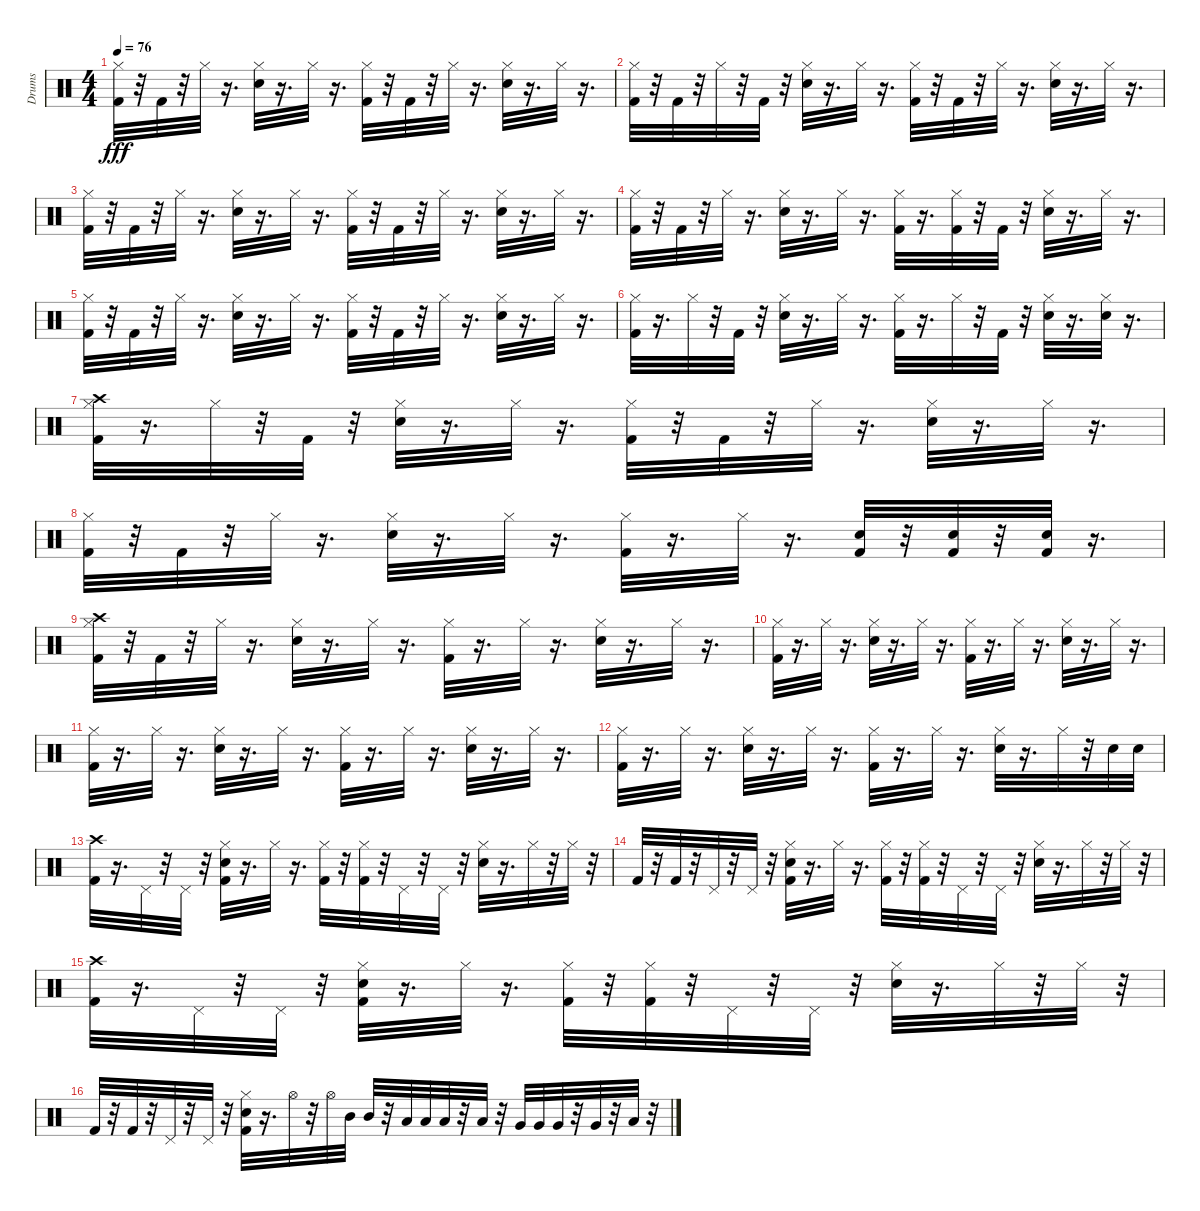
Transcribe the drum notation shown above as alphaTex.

\track ("Drums" "Drums") {instrument percussion}
\staff {score}
\articulation defaults
\ts (4 4)
\tempo 76
\clef neutral
\ks c
("Hi-Hat (closed)" "Kick (hit) 2").32{dy fff} r.32 "Kick (hit) 2".32 r.32 "Hi-Hat (closed)".32 r.16{d} ("Hi-Hat (closed)" "Electric Snare (hit)").32 r.16{d} "Hi-Hat (closed)".32 r.16{d} ("Hi-Hat (closed)" "Kick (hit) 2").32 r.32 "Kick (hit) 2".32 r.32 "Hi-Hat (closed)".32 r.16{d} ("Hi-Hat (closed)" "Electric Snare (hit)").32 r.16{d} "Hi-Hat (closed)".32 r.16{d} |
("Kick (hit) 2" "Hi-Hat (closed)").32 r.32 "Kick (hit) 2".32 r.32 "Hi-Hat (closed)".32 r.32 "Kick (hit) 2".32 r.32 ("Electric Snare (hit)" "Hi-Hat (closed)").32 r.16{d} "Hi-Hat (closed)".32 r.16{d} ("Kick (hit) 2" "Hi-Hat (closed)").32 r.32 "Kick (hit) 2".32 r.32 "Hi-Hat (closed)".32 r.16{d} ("Electric Snare (hit)" "Hi-Hat (closed)").32 r.16{d} "Hi-Hat (closed)".32 r.16{d} |
("Hi-Hat (closed)" "Kick (hit) 2").32 r.32 "Kick (hit) 2".32 r.32 "Hi-Hat (closed)".32 r.16{d} ("Hi-Hat (closed)" "Electric Snare (hit)").32 r.16{d} "Hi-Hat (closed)".32 r.16{d} ("Hi-Hat (closed)" "Kick (hit) 2").32 r.32 "Kick (hit) 2".32 r.32 "Hi-Hat (closed)".32 r.16{d} ("Hi-Hat (closed)" "Electric Snare (hit)").32 r.16{d} "Hi-Hat (closed)".32 r.16{d} |
("Kick (hit) 2" "Hi-Hat (closed)").32 r.32 "Kick (hit) 2".32 r.32 "Hi-Hat (closed)".32 r.16{d} ("Electric Snare (hit)" "Hi-Hat (closed)").32 r.16{d} "Hi-Hat (closed)".32 r.16{d} ("Kick (hit) 2" "Hi-Hat (closed)").32 r.16{d} ("Kick (hit) 2" "Hi-Hat (closed)").32 r.32 "Kick (hit) 2".32 r.32 ("Electric Snare (hit)" "Hi-Hat (closed)").32 r.16{d} "Hi-Hat (closed)".32 r.16{d} |
("Hi-Hat (closed)" "Kick (hit) 2").32 r.32 "Kick (hit) 2".32 r.32 "Hi-Hat (closed)".32 r.16{d} ("Hi-Hat (closed)" "Electric Snare (hit)").32 r.16{d} "Hi-Hat (closed)".32 r.16{d} ("Hi-Hat (closed)" "Kick (hit) 2").32 r.32 "Kick (hit) 2".32 r.32 "Hi-Hat (closed)".32 r.16{d} ("Hi-Hat (closed)" "Electric Snare (hit)").32 r.16{d} "Hi-Hat (closed)".32 r.16{d} |
("Kick (hit) 2" "Hi-Hat (closed)").32 r.16{d} "Hi-Hat (closed)".32 r.32 "Kick (hit) 2".32 r.32 ("Electric Snare (hit)" "Hi-Hat (closed)").32 r.16{d} "Hi-Hat (closed)".32 r.16{d} ("Kick (hit) 2" "Hi-Hat (closed)").32 r.16{d} "Hi-Hat (closed)".32 r.32 "Kick (hit) 2".32 r.32 ("Electric Snare (hit)" "Hi-Hat (closed)").32 r.16{d} ("Electric Snare (hit)" "Hi-Hat (closed)").32 r.16{d} |
("Crash high (hit)" "Hi-Hat (closed)" "Kick (hit) 2").32 r.16{d} "Hi-Hat (closed)".32 r.32 "Kick (hit) 2".32 r.32 ("Hi-Hat (closed)" "Electric Snare (hit)").32 r.16{d} "Hi-Hat (closed)".32 r.16{d} ("Hi-Hat (closed)" "Kick (hit) 2").32 r.32 "Kick (hit) 2".32 r.32 "Hi-Hat (closed)".32 r.16{d} ("Hi-Hat (closed)" "Electric Snare (hit)").32 r.16{d} "Hi-Hat (closed)".32 r.16{d} |
("Kick (hit) 2" "Hi-Hat (closed)").32 r.32 "Kick (hit) 2".32 r.32 "Hi-Hat (closed)".32 r.16{d} ("Electric Snare (hit)" "Hi-Hat (closed)").32 r.16{d} "Hi-Hat (closed)".32 r.16{d} ("Kick (hit) 2" "Hi-Hat (closed)").32 r.16{d} "Hi-Hat (closed)".32 r.16{d} ("Kick (hit) 2" "Electric Snare (hit)").32 r.32 ("Kick (hit) 2" "Electric Snare (hit)").32 r.32 ("Kick (hit) 2" "Electric Snare (hit)").32 r.16{d} |
("Crash high (hit)" "Hi-Hat (closed)" "Kick (hit) 2").32 r.32 "Kick (hit) 2".32 r.32 "Hi-Hat (closed)".32 r.16{d} ("Hi-Hat (closed)" "Electric Snare (hit)").32 r.16{d} "Hi-Hat (closed)".32 r.16{d} ("Kick (hit) 2" "Hi-Hat (closed)").32 r.16{d} "Hi-Hat (closed)".32 r.16{d} ("Hi-Hat (closed)" "Electric Snare (hit)").32 r.16{d} "Hi-Hat (closed)".32 r.16{d} |
("Kick (hit) 2" "Hi-Hat (closed)").32 r.16{d} "Hi-Hat (closed)".32 r.16{d} ("Electric Snare (hit)" "Hi-Hat (closed)").32 r.16{d} "Hi-Hat (closed)".32 r.16{d} ("Kick (hit) 2" "Hi-Hat (closed)").32 r.16{d} "Hi-Hat (closed)".32 r.16{d} ("Hi-Hat (closed)" "Electric Snare (hit)").32 r.16{d} "Hi-Hat (closed)".32 r.16{d} |
("Hi-Hat (closed)" "Kick (hit) 2").32 r.16{d} "Hi-Hat (closed)".32 r.16{d} ("Hi-Hat (closed)" "Electric Snare (hit)").32 r.16{d} "Hi-Hat (closed)".32 r.16{d} ("Kick (hit) 2" "Hi-Hat (closed)").32 r.16{d} "Hi-Hat (closed)".32 r.16{d} ("Hi-Hat (closed)" "Electric Snare (hit)").32 r.16{d} "Hi-Hat (closed)".32 r.16{d} |
("Kick (hit) 2" "Hi-Hat (closed)").32 r.16{d} "Hi-Hat (closed)".32 r.16{d} ("Electric Snare (hit)" "Hi-Hat (closed)").32 r.16{d} "Hi-Hat (closed)".32 r.16{d} ("Kick (hit) 2" "Hi-Hat (closed)").32 r.16{d} "Hi-Hat (closed)".32 r.16{d} ("Hi-Hat (closed)" "Electric Snare (hit)").32 r.16{d} "Hi-Hat (closed)".32 r.32 "Electric Snare (hit)".32 "Electric Snare (hit)".32 |
("Crash high (hit)" "Kick (hit) 2").32 r.16{d} "Pedal Hi-Hat (hit)".32 r.32 "Pedal Hi-Hat (hit)".32 r.32 ("Hi-Hat (closed)" "Kick (hit) 2" "Electric Snare (hit)").32 r.16{d} "Hi-Hat (closed)".32 r.16{d} ("Hi-Hat (closed)" "Kick (hit) 2").32 r.32 ("Hi-Hat (closed)" "Kick (hit) 2").32 r.32 "Pedal Hi-Hat (hit)".32 r.32 "Pedal Hi-Hat (hit)".32 r.32 ("Hi-Hat (closed)" "Electric Snare (hit)").32 r.16{d} "Hi-Hat (closed)".32 r.32 "Hi-Hat (closed)".32 r.32 |
"Kick (hit) 2".32 r.32 "Kick (hit) 2".32 r.32 "Pedal Hi-Hat (hit)".32 r.32 "Pedal Hi-Hat (hit)".32 r.32 ("Hi-Hat (closed)" "Kick (hit) 2" "Electric Snare (hit)").32 r.16{d} "Hi-Hat (closed)".32 r.16{d} ("Hi-Hat (closed)" "Kick (hit) 2").32 r.32 ("Hi-Hat (closed)" "Kick (hit) 2").32 r.32 "Pedal Hi-Hat (hit)".32 r.32 "Pedal Hi-Hat (hit)".32 r.32 ("Hi-Hat (closed)" "Electric Snare (hit)").32 r.16{d} "Hi-Hat (closed)".32 r.32 "Hi-Hat (closed)".32 r.32 |
("Crash high (hit)" "Kick (hit) 2").32 r.16{d} "Pedal Hi-Hat (hit)".32 r.32 "Pedal Hi-Hat (hit)".32 r.32 ("Hi-Hat (closed)" "Kick (hit) 2" "Electric Snare (hit)").32 r.16{d} "Hi-Hat (closed)".32 r.16{d} ("Hi-Hat (closed)" "Kick (hit) 2").32 r.32 ("Hi-Hat (closed)" "Kick (hit) 2").32 r.32 "Pedal Hi-Hat (hit)".32 r.32 "Pedal Hi-Hat (hit)".32 r.32 ("Hi-Hat (closed)" "Electric Snare (hit)").32 r.16{d} "Hi-Hat (closed)".32 r.32 "Hi-Hat (closed)".32 r.32 |
"Kick (hit) 2".32 r.32 "Kick (hit) 2".32 r.32 "Pedal Hi-Hat (hit)".32 r.32 "Pedal Hi-Hat (hit)".32 r.32 ("Hi-Hat (closed)" "Kick (hit) 2" "Electric Snare (hit)").32 r.16{d} "Hi-Hat (open)".32 r.32 "Hi-Hat (open)".32 "Mid Tom (hit)".32 "Mid Tom (hit)".32 r.32 "Low Tom (hit)".32 "Low Tom (hit)".32 "Low Tom (hit)".32 r.32 "Low Tom (hit)".32 r.32 "Very Low Tom (hit)".32 "Very Low Tom (hit)".32 "Very Low Tom (hit)".32 r.32 "Very Low Tom (hit)".32 r.32 "Low Floor Tom (hit)".32 r.32
